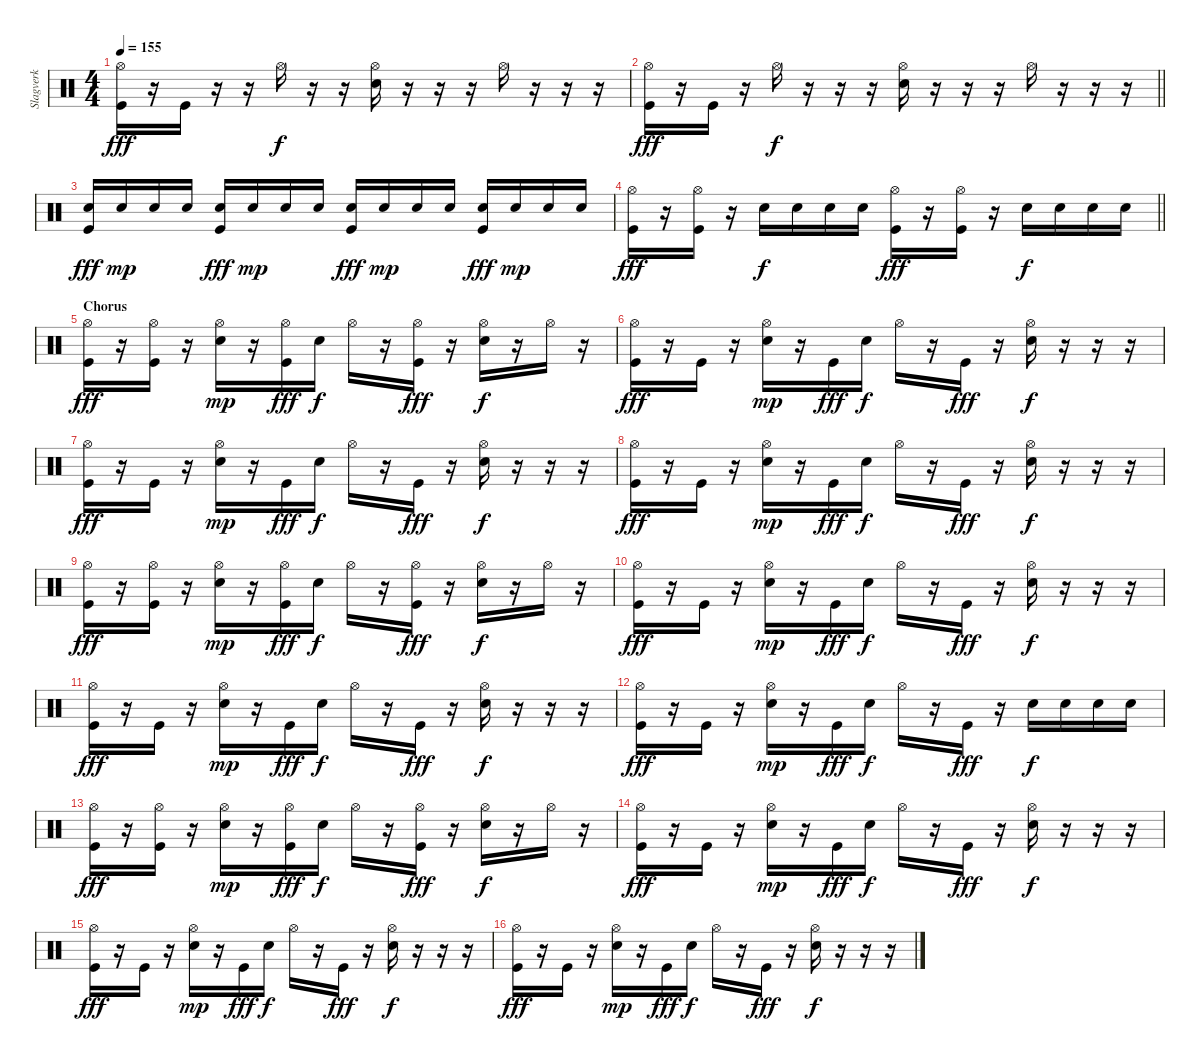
\track ("Slagverk" "Slagverk") {instrument percussion}
\staff {score}
\articulation defaults
\ts (4 4)
\tempo 155
\clef neutral
\ks c
("Hi-Hat (open)" "Kick (hit)").16{dy fff} r.16 "Kick (hit)".16 r.16 r.16 "Hi-Hat (open)".16{dy f} r.16 r.16 ("Hi-Hat (open)" "Electric Snare (hit)").16 r.16 r.16 r.16 "Hi-Hat (open)".16 r.16 r.16 r.16 |
\barLineRight lightlight
("Hi-Hat (open)" "Kick (hit)").16{dy fff} r.16 "Kick (hit)".16 r.16 "Hi-Hat (open)".16{dy f} r.16 r.16 r.16 ("Hi-Hat (open)" "Electric Snare (hit)").16 r.16 r.16 r.16 "Hi-Hat (open)".16 r.16 r.16 r.16 |
("Electric Snare (hit)" "Kick (hit)").16{dy fff} "Electric Snare (hit)".16{dy mp} "Electric Snare (hit)".16 "Electric Snare (hit)".16 ("Electric Snare (hit)" "Kick (hit)").16{dy fff} "Electric Snare (hit)".16{dy mp} "Electric Snare (hit)".16 "Electric Snare (hit)".16 ("Electric Snare (hit)" "Kick (hit)").16{dy fff} "Electric Snare (hit)".16{dy mp} "Electric Snare (hit)".16 "Electric Snare (hit)".16 ("Electric Snare (hit)" "Kick (hit)").16{dy fff} "Electric Snare (hit)".16{dy mp} "Electric Snare (hit)".16 "Electric Snare (hit)".16 |
\barLineRight lightlight
("Hi-Hat (open)" "Kick (hit)").16{dy fff} r.16 ("Hi-Hat (open)" "Kick (hit)").16 r.16 "Electric Snare (hit)".16{dy f} "Electric Snare (hit)".16 "Electric Snare (hit)".16 "Electric Snare (hit)".16 ("Hi-Hat (open)" "Kick (hit)").16{dy fff} r.16 ("Hi-Hat (open)" "Kick (hit)").16 r.16 "Electric Snare (hit)".16{dy f} "Electric Snare (hit)".16 "Electric Snare (hit)".16 "Electric Snare (hit)".16 |
\section ("" "Chorus")
("Hi-Hat (open)" "Kick (hit)").16{dy fff} r.16 ("Hi-Hat (open)" "Kick (hit)").16 r.16 ("Hi-Hat (open)" "Electric Snare (hit)").16{dy mp} r.16 ("Hi-Hat (open)" "Kick (hit)").16{dy fff} "Electric Snare (hit)".16{dy f} "Hi-Hat (open)".16 r.16 ("Hi-Hat (open)" "Kick (hit)").16{dy fff} r.16 ("Hi-Hat (open)" "Electric Snare (hit)").16{dy f} r.16 "Hi-Hat (open)".16 r.16 |
("Hi-Hat (open)" "Kick (hit)").16{dy fff} r.16 "Kick (hit)".16 r.16 ("Hi-Hat (open)" "Electric Snare (hit)").16{dy mp} r.16 "Kick (hit)".16{dy fff} "Electric Snare (hit)".16{dy f} "Hi-Hat (open)".16 r.16 "Kick (hit)".16{dy fff} r.16 ("Hi-Hat (open)" "Electric Snare (hit)").16{dy f} r.16 r.16 r.16 |
("Hi-Hat (open)" "Kick (hit)").16{dy fff} r.16 "Kick (hit)".16 r.16 ("Hi-Hat (open)" "Electric Snare (hit)").16{dy mp} r.16 "Kick (hit)".16{dy fff} "Electric Snare (hit)".16{dy f} "Hi-Hat (open)".16 r.16 "Kick (hit)".16{dy fff} r.16 ("Hi-Hat (open)" "Electric Snare (hit)").16{dy f} r.16 r.16 r.16 |
("Hi-Hat (open)" "Kick (hit)").16{dy fff} r.16 "Kick (hit)".16 r.16 ("Hi-Hat (open)" "Electric Snare (hit)").16{dy mp} r.16 "Kick (hit)".16{dy fff} "Electric Snare (hit)".16{dy f} "Hi-Hat (open)".16 r.16 "Kick (hit)".16{dy fff} r.16 ("Hi-Hat (open)" "Electric Snare (hit)").16{dy f} r.16 r.16 r.16 |
("Hi-Hat (open)" "Kick (hit)").16{dy fff} r.16 ("Hi-Hat (open)" "Kick (hit)").16 r.16 ("Hi-Hat (open)" "Electric Snare (hit)").16{dy mp} r.16 ("Hi-Hat (open)" "Kick (hit)").16{dy fff} "Electric Snare (hit)".16{dy f} "Hi-Hat (open)".16 r.16 ("Hi-Hat (open)" "Kick (hit)").16{dy fff} r.16 ("Hi-Hat (open)" "Electric Snare (hit)").16{dy f} r.16 "Hi-Hat (open)".16 r.16 |
("Hi-Hat (open)" "Kick (hit)").16{dy fff} r.16 "Kick (hit)".16 r.16 ("Hi-Hat (open)" "Electric Snare (hit)").16{dy mp} r.16 "Kick (hit)".16{dy fff} "Electric Snare (hit)".16{dy f} "Hi-Hat (open)".16 r.16 "Kick (hit)".16{dy fff} r.16 ("Hi-Hat (open)" "Electric Snare (hit)").16{dy f} r.16 r.16 r.16 |
("Hi-Hat (open)" "Kick (hit)").16{dy fff} r.16 "Kick (hit)".16 r.16 ("Hi-Hat (open)" "Electric Snare (hit)").16{dy mp} r.16 "Kick (hit)".16{dy fff} "Electric Snare (hit)".16{dy f} "Hi-Hat (open)".16 r.16 "Kick (hit)".16{dy fff} r.16 ("Hi-Hat (open)" "Electric Snare (hit)").16{dy f} r.16 r.16 r.16 |
("Hi-Hat (open)" "Kick (hit)").16{dy fff} r.16 "Kick (hit)".16 r.16 ("Hi-Hat (open)" "Electric Snare (hit)").16{dy mp} r.16 "Kick (hit)".16{dy fff} "Electric Snare (hit)".16{dy f} "Hi-Hat (open)".16 r.16 "Kick (hit)".16{dy fff} r.16 "Electric Snare (hit)".16{dy f} "Electric Snare (hit)".16 "Electric Snare (hit)".16 "Electric Snare (hit)".16 |
("Hi-Hat (open)" "Kick (hit)").16{dy fff} r.16 ("Hi-Hat (open)" "Kick (hit)").16 r.16 ("Hi-Hat (open)" "Electric Snare (hit)").16{dy mp} r.16 ("Hi-Hat (open)" "Kick (hit)").16{dy fff} "Electric Snare (hit)".16{dy f} "Hi-Hat (open)".16 r.16 ("Hi-Hat (open)" "Kick (hit)").16{dy fff} r.16 ("Hi-Hat (open)" "Electric Snare (hit)").16{dy f} r.16 "Hi-Hat (open)".16 r.16 |
("Hi-Hat (open)" "Kick (hit)").16{dy fff} r.16 "Kick (hit)".16 r.16 ("Hi-Hat (open)" "Electric Snare (hit)").16{dy mp} r.16 "Kick (hit)".16{dy fff} "Electric Snare (hit)".16{dy f} "Hi-Hat (open)".16 r.16 "Kick (hit)".16{dy fff} r.16 ("Hi-Hat (open)" "Electric Snare (hit)").16{dy f} r.16 r.16 r.16 |
("Hi-Hat (open)" "Kick (hit)").16{dy fff} r.16 "Kick (hit)".16 r.16 ("Hi-Hat (open)" "Electric Snare (hit)").16{dy mp} r.16 "Kick (hit)".16{dy fff} "Electric Snare (hit)".16{dy f} "Hi-Hat (open)".16 r.16 "Kick (hit)".16{dy fff} r.16 ("Hi-Hat (open)" "Electric Snare (hit)").16{dy f} r.16 r.16 r.16 |
("Hi-Hat (open)" "Kick (hit)").16{dy fff} r.16 "Kick (hit)".16 r.16 ("Hi-Hat (open)" "Electric Snare (hit)").16{dy mp} r.16 "Kick (hit)".16{dy fff} "Electric Snare (hit)".16{dy f} "Hi-Hat (open)".16 r.16 "Kick (hit)".16{dy fff} r.16 ("Hi-Hat (open)" "Electric Snare (hit)").16{dy f} r.16 r.16 r.16
